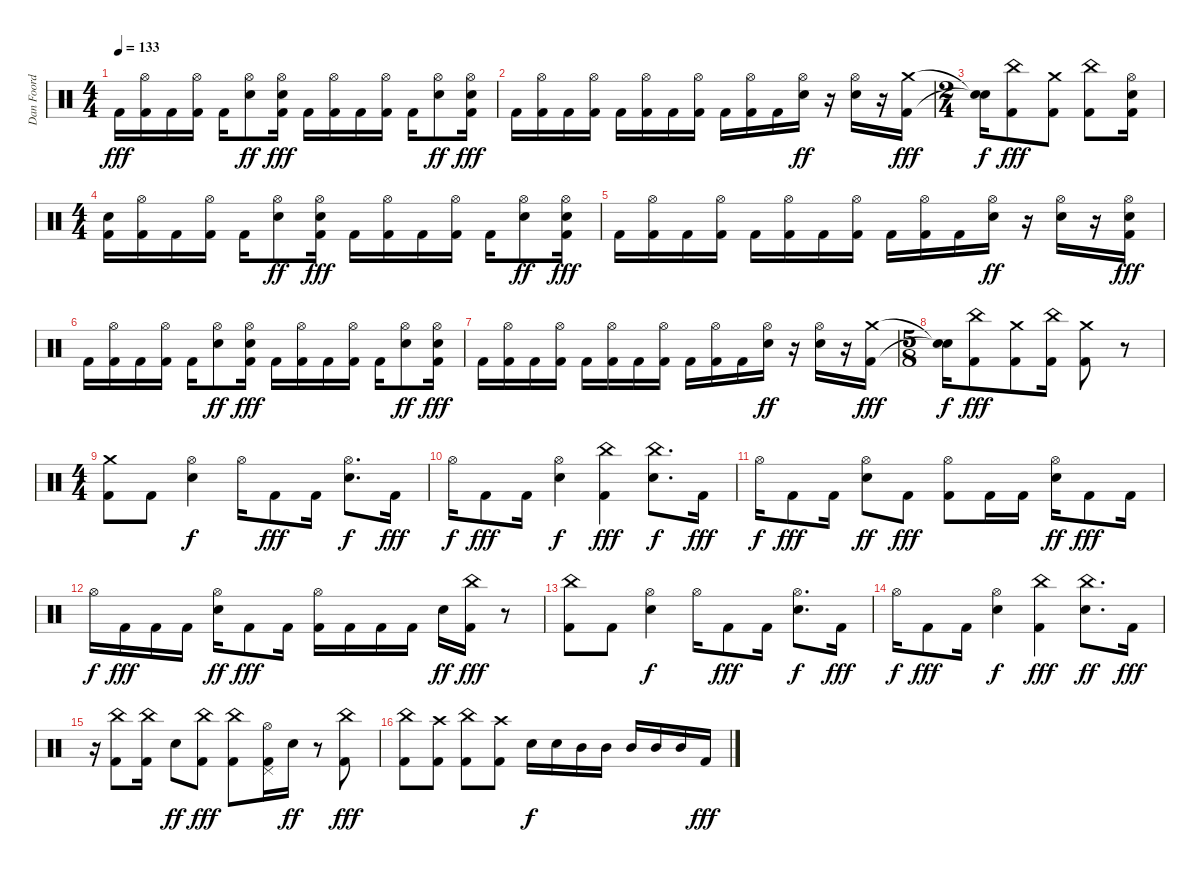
\track ("Dan Foord 2" "Dan Foord ") {instrument percussion}
\staff {score}
\articulation defaults
\ts (4 4)
\tempo 133
\clef neutral
\ks c "Kick (hit) 2".16{dy fff}
("Kick (hit) 2" "Hi-Hat (open)").16 "Kick (hit) 2".16 ("Kick (hit) 2" "Hi-Hat (open)").16 "Kick (hit) 2".16 ("Snare (hit) 2" "Hi-Hat (open)").8{dy ff} ("Snare (hit) 2" "Kick (hit) 2" "Hi-Hat (open)").16{dy fff} "Kick (hit) 2".16 ("Kick (hit) 2" "Hi-Hat (open)").16 "Kick (hit) 2".16 ("Kick (hit) 2" "Hi-Hat (open)").16 "Kick (hit) 2".16 ("Snare (hit) 2" "Hi-Hat (open)").8{dy ff} ("Snare (hit) 2" "Kick (hit) 2" "Hi-Hat (open)").16{dy fff} |
"Kick (hit) 2".16 ("Kick (hit) 2" "Hi-Hat (open)").16 "Kick (hit) 2".16 ("Kick (hit) 2" "Hi-Hat (open)").16 "Kick (hit) 2".16 ("Kick (hit) 2" "Hi-Hat (open)").16 "Kick (hit) 2".16 ("Kick (hit) 2" "Hi-Hat (open)").16 "Kick (hit) 2".16 ("Kick (hit) 2" "Hi-Hat (open)").16 "Kick (hit) 2".16 ("Snare (hit) 2" "Hi-Hat (open)").16{dy ff} r.16 ("Snare (hit) 2" "Hi-Hat (open)").16 r.16 ("Kick (hit) 2" "Crash medium (hit)").16{dy fff} |
\ts (2 4)
("Snare (hit)"{t} "Snare (hit)"{t}).16{dy f} ("Kick (hit) 2" "China (hit)").8{dy fff} ("Kick (hit) 2" "Crash medium (hit)").8 ("Kick (hit) 2" "China (hit)").8 ("Kick (hit) 2" "Hi-Hat (open)" "Snare (hit) 2").16 |
\ts (4 4)
("Kick (hit) 2" "Snare (hit) 2").16 ("Kick (hit) 2" "Hi-Hat (open)").16 "Kick (hit) 2".16 ("Kick (hit) 2" "Hi-Hat (open)").16 "Kick (hit) 2".16 ("Snare (hit) 2" "Hi-Hat (open)").8{dy ff} ("Snare (hit) 2" "Kick (hit) 2" "Hi-Hat (open)").16{dy fff} "Kick (hit) 2".16 ("Kick (hit) 2" "Hi-Hat (open)").16 "Kick (hit) 2".16 ("Kick (hit) 2" "Hi-Hat (open)").16 "Kick (hit) 2".16 ("Snare (hit) 2" "Hi-Hat (open)").8{dy ff} ("Snare (hit) 2" "Kick (hit) 2" "Hi-Hat (open)").16{dy fff} |
"Kick (hit) 2".16 ("Kick (hit) 2" "Hi-Hat (open)").16 "Kick (hit) 2".16 ("Kick (hit) 2" "Hi-Hat (open)").16 "Kick (hit) 2".16 ("Kick (hit) 2" "Hi-Hat (open)").16 "Kick (hit) 2".16 ("Kick (hit) 2" "Hi-Hat (open)").16 "Kick (hit) 2".16 ("Kick (hit) 2" "Hi-Hat (open)").16 "Kick (hit) 2".16 ("Snare (hit) 2" "Hi-Hat (open)").16{dy ff} r.16 ("Snare (hit) 2" "Hi-Hat (open)").16 r.16 ("Snare (hit) 2" "Kick (hit) 2" "Hi-Hat (open)").16{dy fff} |
"Kick (hit) 2".16 ("Kick (hit) 2" "Hi-Hat (open)").16 "Kick (hit) 2".16 ("Kick (hit) 2" "Hi-Hat (open)").16 "Kick (hit) 2".16 ("Snare (hit) 2" "Hi-Hat (open)").8{dy ff} ("Snare (hit) 2" "Kick (hit) 2" "Hi-Hat (open)").16{dy fff} "Kick (hit) 2".16 ("Kick (hit) 2" "Hi-Hat (open)").16 "Kick (hit) 2".16 ("Kick (hit) 2" "Hi-Hat (open)").16 "Kick (hit) 2".16 ("Snare (hit) 2" "Hi-Hat (open)").8{dy ff} ("Snare (hit) 2" "Kick (hit) 2" "Hi-Hat (open)").16{dy fff} |
"Kick (hit) 2".16 ("Kick (hit) 2" "Hi-Hat (open)").16 "Kick (hit) 2".16 ("Kick (hit) 2" "Hi-Hat (open)").16 "Kick (hit) 2".16 ("Kick (hit) 2" "Hi-Hat (open)").16 "Kick (hit) 2".16 ("Kick (hit) 2" "Hi-Hat (open)").16 "Kick (hit) 2".16 ("Kick (hit) 2" "Hi-Hat (open)").16 "Kick (hit) 2".16 ("Snare (hit) 2" "Hi-Hat (open)").16{dy ff} r.16 ("Snare (hit) 2" "Hi-Hat (open)").16 r.16 ("Kick (hit) 2" "Crash medium (hit)").16{dy fff} |
\ts (5 8)
("Snare (hit)"{t} "Snare (hit)"{t}).16{dy f} ("Kick (hit) 2" "China (hit)").8{dy fff} ("Kick (hit) 2" "Crash medium (hit)").8 ("Kick (hit) 2" "China (hit)").16 ("Kick (hit) 2" "Crash medium (hit)").8 r.8 |
\ts (4 4)
("Kick (hit) 2" "Crash medium (hit)").8 "Kick (hit) 2".8 ("Snare (hit) 2" "Hi-Hat (open)").4{dy f} "Hi-Hat (open)".16 "Kick (hit) 2".8{dy fff} "Kick (hit) 2".16 ("Snare (hit) 2" "Hi-Hat (open)").8{d dy f} "Kick (hit) 2".16{dy fff} |
"Hi-Hat (open)".16{dy f} "Kick (hit) 2".8{dy fff} "Kick (hit) 2".16 ("Snare (hit) 2" "Hi-Hat (open)").4{dy f} ("Kick (hit) 2" "China (hit)").4{dy fff} ("Snare (hit) 2" "China (hit)").8{d dy f} "Kick (hit) 2".16{dy fff} |
"Hi-Hat (open)".16{dy f} "Kick (hit) 2".8{dy fff} "Kick (hit) 2".16 ("Snare (hit) 2" "Hi-Hat (open)").8{dy ff} "Kick (hit) 2".8{dy fff} ("Kick (hit) 2" "Hi-Hat (open)").8 "Kick (hit) 2".16 "Kick (hit) 2".16 ("Snare (hit) 2" "Hi-Hat (open)").16{dy ff} "Kick (hit) 2".8{dy fff} "Kick (hit) 2".16 |
"Hi-Hat (open)".16{dy f} "Kick (hit) 2".16{dy fff} "Kick (hit) 2".16 "Kick (hit) 2".16 ("Snare (hit) 2" "Hi-Hat (open)").16{dy ff} "Kick (hit) 2".8{dy fff} "Kick (hit) 2".16 ("Kick (hit) 2" "Hi-Hat (open)").16 "Kick (hit) 2".16 "Kick (hit) 2".16 "Kick (hit) 2".16 "Snare (hit) 2".16{dy ff} ("Kick (hit) 2" "China (hit)").16{dy fff} r.8 |
("Kick (hit) 2" "China (hit)").8 "Kick (hit) 2".8 ("Snare (hit) 2" "Hi-Hat (open)").4{dy f} "Hi-Hat (open)".16 "Kick (hit) 2".8{dy fff} "Kick (hit) 2".16 ("Snare (hit) 2" "Hi-Hat (open)").8{d dy f} "Kick (hit) 2".16{dy fff} |
"Hi-Hat (open)".16{dy f} "Kick (hit) 2".8{dy fff} "Kick (hit) 2".16 ("Snare (hit) 2" "Hi-Hat (open)").4{dy f} ("Kick (hit) 2" "China (hit)").4{dy fff} ("Snare (hit) 2" "China (hit)").8{d dy ff} "Kick (hit) 2".16{dy fff} |
r.16 ("Kick (hit) 2" "China (hit)").8 ("Kick (hit) 2" "China (hit)").16 "Snare (hit) 2".8{dy ff} ("Kick (hit) 2" "China (hit)").8{dy fff} ("Kick (hit) 2" "China (hit)").8 ("Kick (hit) 2" "Pedal Hi-Hat (hit)" "Hi-Hat (open)").16 "Snare (hit) 2".16{dy ff} r.8 ("Kick (hit) 2" "China (hit)").8{dy fff} |
("Kick (hit) 2" "China (hit)").8 ("Kick (hit) 2" "Crash high (hit)").8 ("Kick (hit) 2" "China (hit)").8 ("Kick (hit) 2" "Crash high (hit)").8 "Snare (hit) 2".16{dy f} "Snare (hit) 2".16 "Mid Tom (hit)".16 "Mid Tom (hit)".16 "Mid Tom (hit)".16 "Mid Tom (hit)".16 "Mid Tom (hit)".16 "Kick (hit) 2".16{dy fff}
